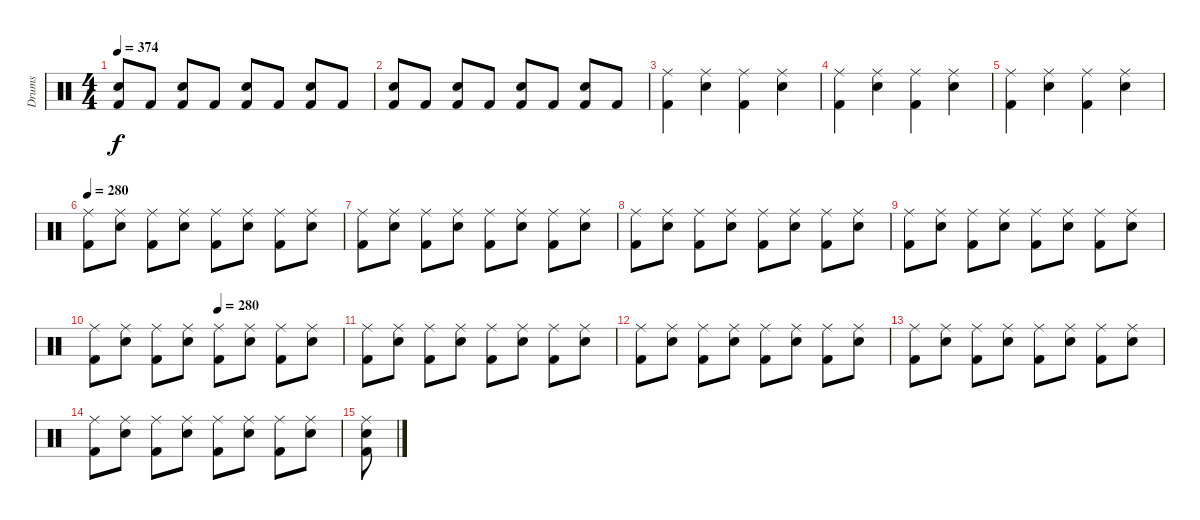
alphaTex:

\track ("Drums" "Drums") {instrument percussion}
\staff {score}
\articulation defaults
\ts (4 4)
\tempo 374
\clef neutral
\ks c
("Snare (hit) 2" "Kick (hit) 2").8{dy f} "Kick (hit) 2".8 ("Snare (hit) 2" "Kick (hit) 2").8 "Kick (hit) 2".8 ("Snare (hit) 2" "Kick (hit) 2").8 "Kick (hit) 2".8 ("Snare (hit) 2" "Kick (hit) 2").8 "Kick (hit) 2".8 |
("Snare (hit) 2" "Kick (hit) 2").8 "Kick (hit) 2".8 ("Snare (hit) 2" "Kick (hit) 2").8 "Kick (hit) 2".8 ("Snare (hit) 2" "Kick (hit) 2").8 "Kick (hit) 2".8 ("Snare (hit) 2" "Kick (hit) 2").8 "Kick (hit) 2".8 |
("Ride (middle)" "Kick (hit) 2").4 ("Ride (middle)" "Snare (hit) 2").4 ("Ride (middle)" "Kick (hit) 2").4 ("Ride (middle)" "Snare (hit) 2").4 |
("Ride (middle)" "Kick (hit) 2").4 ("Ride (middle)" "Snare (hit) 2").4 ("Ride (middle)" "Kick (hit) 2").4 ("Ride (middle)" "Snare (hit) 2").4 |
("Ride (middle)" "Kick (hit) 2").4 ("Ride (middle)" "Snare (hit) 2").4 ("Ride (middle)" "Kick (hit) 2").4 ("Ride (middle)" "Snare (hit) 2").4 |
\tempo 280
("Ride (middle)" "Kick (hit) 2").8 ("Ride (middle)" "Snare (hit) 2").8 ("Ride (middle)" "Kick (hit) 2").8 ("Ride (middle)" "Snare (hit) 2").8 ("Ride (middle)" "Kick (hit) 2").8 ("Ride (middle)" "Snare (hit) 2").8 ("Ride (middle)" "Kick (hit) 2").8 ("Ride (middle)" "Snare (hit) 2").8 |
("Ride (middle)" "Kick (hit) 2").8 ("Ride (middle)" "Snare (hit) 2").8 ("Ride (middle)" "Kick (hit) 2").8 ("Ride (middle)" "Snare (hit) 2").8 ("Ride (middle)" "Kick (hit) 2").8 ("Ride (middle)" "Snare (hit) 2").8 ("Ride (middle)" "Kick (hit) 2").8 ("Ride (middle)" "Snare (hit) 2").8 |
("Ride (middle)" "Kick (hit) 2").8 ("Ride (middle)" "Snare (hit) 2").8 ("Ride (middle)" "Kick (hit) 2").8 ("Ride (middle)" "Snare (hit) 2").8 ("Ride (middle)" "Kick (hit) 2").8 ("Ride (middle)" "Snare (hit) 2").8 ("Ride (middle)" "Kick (hit) 2").8 ("Ride (middle)" "Snare (hit) 2").8 |
("Ride (middle)" "Kick (hit) 2").8 ("Ride (middle)" "Snare (hit) 2").8 ("Ride (middle)" "Kick (hit) 2").8 ("Ride (middle)" "Snare (hit) 2").8 ("Ride (middle)" "Kick (hit) 2").8 ("Ride (middle)" "Snare (hit) 2").8 ("Ride (middle)" "Kick (hit) 2").8 ("Ride (middle)" "Snare (hit) 2").8 |
\tempo (280 0.5)
("Ride (middle)" "Kick (hit) 2").8 ("Ride (middle)" "Snare (hit) 2").8 ("Ride (middle)" "Kick (hit) 2").8 ("Ride (middle)" "Snare (hit) 2").8 ("Ride (middle)" "Kick (hit) 2").8 ("Ride (middle)" "Snare (hit) 2").8 ("Ride (middle)" "Kick (hit) 2").8 ("Ride (middle)" "Snare (hit) 2").8 |
("Ride (middle)" "Kick (hit) 2").8 ("Ride (middle)" "Snare (hit) 2").8 ("Ride (middle)" "Kick (hit) 2").8 ("Ride (middle)" "Snare (hit) 2").8 ("Ride (middle)" "Kick (hit) 2").8 ("Ride (middle)" "Snare (hit) 2").8 ("Ride (middle)" "Kick (hit) 2").8 ("Ride (middle)" "Snare (hit) 2").8 |
("Ride (middle)" "Kick (hit) 2").8 ("Ride (middle)" "Snare (hit) 2").8 ("Ride (middle)" "Kick (hit) 2").8 ("Ride (middle)" "Snare (hit) 2").8 ("Ride (middle)" "Kick (hit) 2").8 ("Ride (middle)" "Snare (hit) 2").8 ("Ride (middle)" "Kick (hit) 2").8 ("Ride (middle)" "Snare (hit) 2").8 |
("Ride (middle)" "Kick (hit) 2").8 ("Ride (middle)" "Snare (hit) 2").8 ("Ride (middle)" "Kick (hit) 2").8 ("Ride (middle)" "Snare (hit) 2").8 ("Ride (middle)" "Kick (hit) 2").8 ("Ride (middle)" "Snare (hit) 2").8 ("Ride (middle)" "Kick (hit) 2").8 ("Ride (middle)" "Snare (hit) 2").8 |
("Ride (middle)" "Kick (hit) 2").8 ("Ride (middle)" "Snare (hit) 2").8 ("Ride (middle)" "Kick (hit) 2").8 ("Ride (middle)" "Snare (hit) 2").8 ("Ride (middle)" "Kick (hit) 2").8 ("Ride (middle)" "Snare (hit) 2").8 ("Ride (middle)" "Kick (hit) 2").8 ("Ride (middle)" "Snare (hit) 2").8 |
("Ride (middle)" "Snare (hit) 2" "Kick (hit) 2").8
